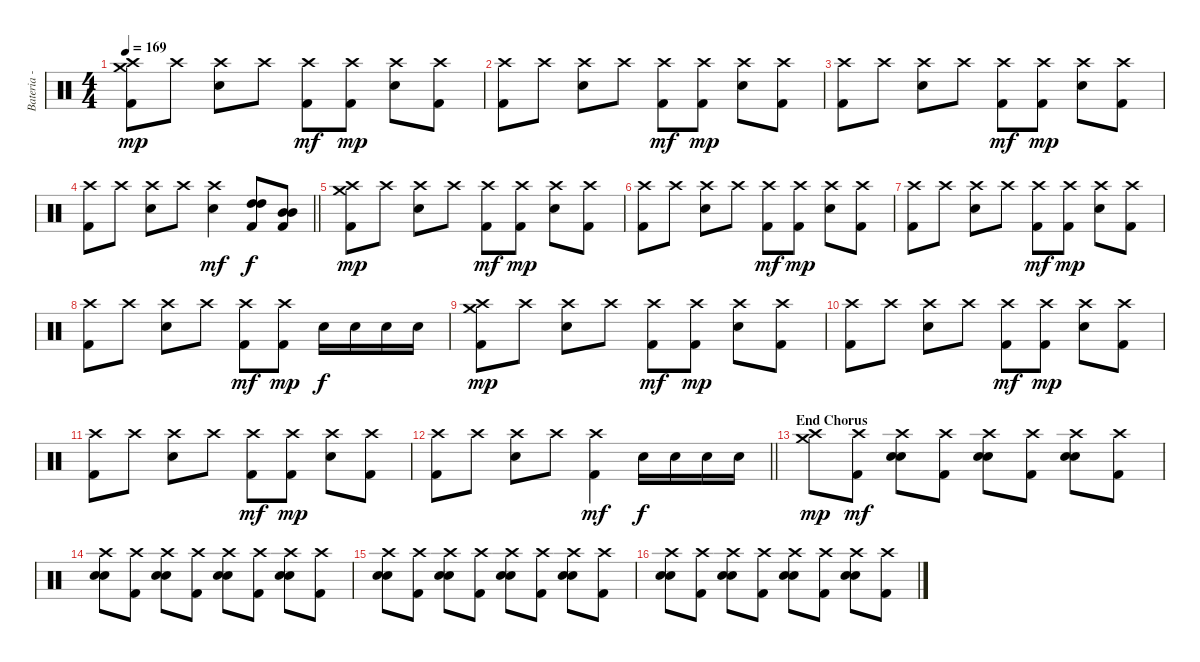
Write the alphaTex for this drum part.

\track ("Bateria - Larzon" "Bateria - ") {instrument percussion}
\staff {score}
\articulation defaults
\ts (4 4)
\tempo 169
\clef neutral
\ks c
("Kick (hit) 2" "Crash medium (hit)" "Crash high (hit)").8{dy mp} "Crash high (hit)".8 ("Electric Snare (hit)" "Crash high (hit)").8 "Crash high (hit)".8 ("Kick (hit) 2" "Crash high (hit)").8{dy mf} ("Kick (hit) 2" "Crash high (hit)").8{dy mp} ("Electric Snare (hit)" "Crash high (hit)").8 ("Kick (hit) 2" "Crash high (hit)").8 |
("Kick (hit) 2" "Crash high (hit)").8 "Crash high (hit)".8 ("Electric Snare (hit)" "Crash high (hit)").8 "Crash high (hit)".8 ("Kick (hit) 2" "Crash high (hit)").8{dy mf} ("Kick (hit) 2" "Crash high (hit)").8{dy mp} ("Electric Snare (hit)" "Crash high (hit)").8 ("Kick (hit) 2" "Crash high (hit)").8 |
("Kick (hit) 2" "Crash high (hit)").8 "Crash high (hit)".8 ("Electric Snare (hit)" "Crash high (hit)").8 "Crash high (hit)".8 ("Kick (hit) 2" "Crash high (hit)").8{dy mf} ("Kick (hit) 2" "Crash high (hit)").8{dy mp} ("Electric Snare (hit)" "Crash high (hit)").8 ("Kick (hit) 2" "Crash high (hit)").8 |
\barLineRight lightlight
("Kick (hit) 2" "Crash high (hit)").8 "Crash high (hit)".8 ("Electric Snare (hit)" "Crash high (hit)").8 "Crash high (hit)".8 ("Electric Snare (hit)" "Crash high (hit)").4{dy mf} ("High Tom (hit)" "High Tom (hit)" "Kick (hit) 2").8{dy f} ("Mid Tom (hit)" "Mid Tom (hit)" "Kick (hit) 2").8 |
("Kick (hit) 2" "Crash medium (hit)" "Crash high (hit)").8{dy mp} "Crash high (hit)".8 ("Electric Snare (hit)" "Crash high (hit)").8 "Crash high (hit)".8 ("Kick (hit) 2" "Crash high (hit)").8{dy mf} ("Kick (hit) 2" "Crash high (hit)").8{dy mp} ("Electric Snare (hit)" "Crash high (hit)").8 ("Kick (hit) 2" "Crash high (hit)").8 |
("Kick (hit) 2" "Crash high (hit)").8 "Crash high (hit)".8 ("Electric Snare (hit)" "Crash high (hit)").8 "Crash high (hit)".8 ("Kick (hit) 2" "Crash high (hit)").8{dy mf} ("Kick (hit) 2" "Crash high (hit)").8{dy mp} ("Electric Snare (hit)" "Crash high (hit)").8 ("Kick (hit) 2" "Crash high (hit)").8 |
("Kick (hit) 2" "Crash high (hit)").8 "Crash high (hit)".8 ("Electric Snare (hit)" "Crash high (hit)").8 "Crash high (hit)".8 ("Kick (hit) 2" "Crash high (hit)").8{dy mf} ("Kick (hit) 2" "Crash high (hit)").8{dy mp} ("Electric Snare (hit)" "Crash high (hit)").8 ("Kick (hit) 2" "Crash high (hit)").8 |
("Kick (hit) 2" "Crash high (hit)").8 "Crash high (hit)".8 ("Electric Snare (hit)" "Crash high (hit)").8 "Crash high (hit)".8 ("Kick (hit) 2" "Crash high (hit)").8{dy mf} ("Kick (hit) 2" "Crash high (hit)").8{dy mp} "Electric Snare (hit)".16{dy f} "Electric Snare (hit)".16 "Electric Snare (hit)".16 "Electric Snare (hit)".16 |
("Kick (hit) 2" "Crash medium (hit)" "Crash high (hit)").8{dy mp} "Crash high (hit)".8 ("Electric Snare (hit)" "Crash high (hit)").8 "Crash high (hit)".8 ("Kick (hit) 2" "Crash high (hit)").8{dy mf} ("Kick (hit) 2" "Crash high (hit)").8{dy mp} ("Electric Snare (hit)" "Crash high (hit)").8 ("Kick (hit) 2" "Crash high (hit)").8 |
("Kick (hit) 2" "Crash high (hit)").8 "Crash high (hit)".8 ("Electric Snare (hit)" "Crash high (hit)").8 "Crash high (hit)".8 ("Kick (hit) 2" "Crash high (hit)").8{dy mf} ("Kick (hit) 2" "Crash high (hit)").8{dy mp} ("Electric Snare (hit)" "Crash high (hit)").8 ("Kick (hit) 2" "Crash high (hit)").8 |
("Kick (hit) 2" "Crash high (hit)").8 "Crash high (hit)".8 ("Electric Snare (hit)" "Crash high (hit)").8 "Crash high (hit)".8 ("Kick (hit) 2" "Crash high (hit)").8{dy mf} ("Kick (hit) 2" "Crash high (hit)").8{dy mp} ("Electric Snare (hit)" "Crash high (hit)").8 ("Kick (hit) 2" "Crash high (hit)").8 |
\barLineRight lightlight
("Kick (hit) 2" "Crash high (hit)").8 "Crash high (hit)".8 ("Electric Snare (hit)" "Crash high (hit)").8 "Crash high (hit)".8 ("Kick (hit) 2" "Crash high (hit)").4{dy mf} "Electric Snare (hit)".16{dy f} "Electric Snare (hit)".16 "Electric Snare (hit)".16 "Electric Snare (hit)".16 |
\section ("" "End Chorus")
("Crash medium (hit)" "Crash high (hit)").8{dy mp} ("Kick (hit) 2" "Crash high (hit)").8{dy mf} ("Electric Snare (hit)" "Electric Snare (hit)" "Crash high (hit)").8 ("Kick (hit) 2" "Crash high (hit)").8 ("Electric Snare (hit)" "Electric Snare (hit)" "Crash high (hit)").8 ("Kick (hit) 2" "Crash high (hit)").8 ("Electric Snare (hit)" "Electric Snare (hit)" "Crash high (hit)").8 ("Kick (hit) 2" "Crash high (hit)").8 |
("Electric Snare (hit)" "Electric Snare (hit)" "Crash high (hit)").8 ("Kick (hit) 2" "Crash high (hit)").8 ("Electric Snare (hit)" "Electric Snare (hit)" "Crash high (hit)").8 ("Kick (hit) 2" "Crash high (hit)").8 ("Electric Snare (hit)" "Electric Snare (hit)" "Crash high (hit)").8 ("Kick (hit) 2" "Crash high (hit)").8 ("Electric Snare (hit)" "Electric Snare (hit)" "Crash high (hit)").8 ("Kick (hit) 2" "Crash high (hit)").8 |
("Electric Snare (hit)" "Electric Snare (hit)" "Crash high (hit)").8 ("Kick (hit) 2" "Crash high (hit)").8 ("Electric Snare (hit)" "Electric Snare (hit)" "Crash high (hit)").8 ("Kick (hit) 2" "Crash high (hit)").8 ("Electric Snare (hit)" "Electric Snare (hit)" "Crash high (hit)").8 ("Kick (hit) 2" "Crash high (hit)").8 ("Electric Snare (hit)" "Electric Snare (hit)" "Crash high (hit)").8 ("Kick (hit) 2" "Crash high (hit)").8 |
("Electric Snare (hit)" "Electric Snare (hit)" "Crash high (hit)").8 ("Kick (hit) 2" "Crash high (hit)").8 ("Electric Snare (hit)" "Electric Snare (hit)" "Crash high (hit)").8 ("Kick (hit) 2" "Crash high (hit)").8 ("Electric Snare (hit)" "Electric Snare (hit)" "Crash high (hit)").8 ("Kick (hit) 2" "Crash high (hit)").8 ("Electric Snare (hit)" "Electric Snare (hit)" "Crash high (hit)").8 ("Kick (hit) 2" "Crash high (hit)").8
